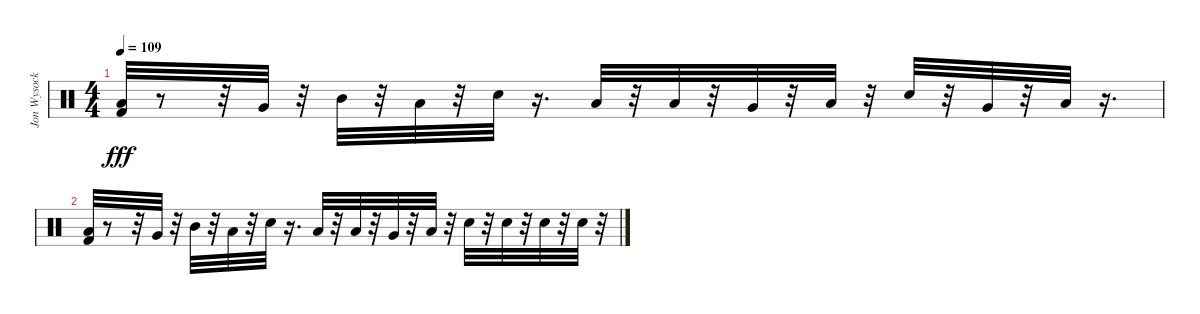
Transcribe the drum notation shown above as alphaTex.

\track ("Jon Wysocki - Drums" "Jon Wysock") {instrument percussion}
\staff {score}
\articulation defaults
\ts (4 4)
\tempo 109
\clef neutral
\ks c
("Kick (hit) 2" "Low Tom (hit)").32{dy fff} r.8 r.32 "Very Low Tom (hit)".32 r.32 "Mid Tom (hit)".32 r.32 "Low Floor Tom (hit)".32 r.32 "Electric Snare (hit)".32 r.16{d} "Low Tom (hit)".32 r.32 "Low Tom (hit)".32 r.32 "Very Low Tom (hit)".32 r.32 "Low Floor Tom (hit)".32 r.32 "Electric Snare (hit)".32 r.32 "Very Low Tom (hit)".32 r.32 "Low Floor Tom (hit)".32 r.16{d} |
("Kick (hit) 2" "Low Tom (hit)").32 r.8 r.32 "Very Low Tom (hit)".32 r.32 "Mid Tom (hit)".32 r.32 "Low Floor Tom (hit)".32 r.32 "Electric Snare (hit)".32 r.16{d} "Low Tom (hit)".32 r.32 "Low Tom (hit)".32 r.32 "Very Low Tom (hit)".32 r.32 "Low Floor Tom (hit)".32 r.32 "Electric Snare (hit)".32 r.32 "Electric Snare (hit)".32 r.32 "Electric Snare (hit)".32 r.32 "Electric Snare (hit)".32 r.32
